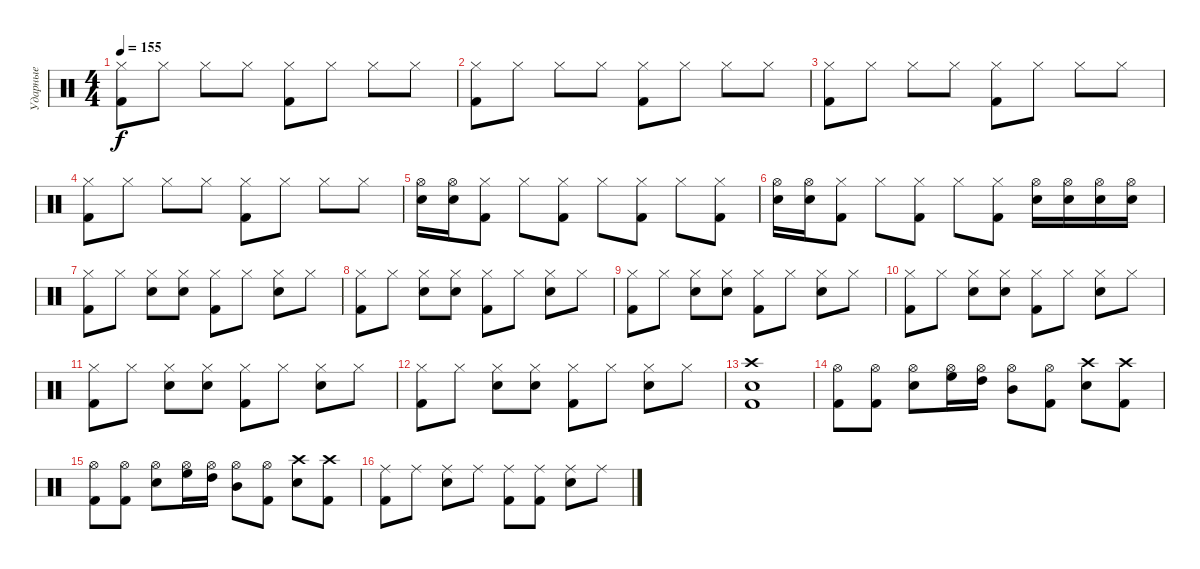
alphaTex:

\track ("Ударные" "Ударные") {solo instrument percussion}
\staff {score}
\articulation defaults
\ts (4 4)
\tempo 155
\clef neutral
\ks c
("Hi-Hat (closed)" "Kick (hit) 2").8{dy f} "Hi-Hat (closed)".8 "Hi-Hat (closed)".8 "Hi-Hat (closed)".8 ("Hi-Hat (closed)" "Kick (hit) 2").8 "Hi-Hat (closed)".8 "Hi-Hat (closed)".8 "Hi-Hat (closed)".8 |
("Hi-Hat (closed)" "Kick (hit) 2").8 "Hi-Hat (closed)".8 "Hi-Hat (closed)".8 "Hi-Hat (closed)".8 ("Hi-Hat (closed)" "Kick (hit) 2").8 "Hi-Hat (closed)".8 "Hi-Hat (closed)".8 "Hi-Hat (closed)".8 |
("Hi-Hat (closed)" "Kick (hit) 2").8 "Hi-Hat (closed)".8 "Hi-Hat (closed)".8 "Hi-Hat (closed)".8 ("Hi-Hat (closed)" "Kick (hit) 2").8 "Hi-Hat (closed)".8 "Hi-Hat (closed)".8 "Hi-Hat (closed)".8 |
("Hi-Hat (closed)" "Kick (hit) 2").8 "Hi-Hat (closed)".8 "Hi-Hat (closed)".8 "Hi-Hat (closed)".8 ("Hi-Hat (closed)" "Kick (hit) 2").8 "Hi-Hat (closed)".8 "Hi-Hat (closed)".8 "Hi-Hat (closed)".8 |
("Snare (hit) 2" "Hi-Hat (open)").16 ("Snare (hit) 2" "Hi-Hat (open)").16 ("Hi-Hat (closed)" "Kick (hit) 2").8 "Hi-Hat (closed)".8 ("Hi-Hat (closed)" "Kick (hit) 2").8 "Hi-Hat (closed)".8 ("Hi-Hat (closed)" "Kick (hit) 2").8 "Hi-Hat (closed)".8 ("Hi-Hat (closed)" "Kick (hit) 2").8 |
("Snare (hit) 2" "Hi-Hat (open)").16 ("Snare (hit) 2" "Hi-Hat (open)").16 ("Hi-Hat (closed)" "Kick (hit) 2").8 "Hi-Hat (closed)".8 ("Hi-Hat (closed)" "Kick (hit) 2").8 "Hi-Hat (closed)".8 ("Hi-Hat (closed)" "Kick (hit) 2").8 ("Electric Snare (hit)" "Hi-Hat (open)").16 ("Electric Snare (hit)" "Hi-Hat (open)").16 ("Electric Snare (hit)" "Hi-Hat (open)").16 ("Electric Snare (hit)" "Hi-Hat (open)").16 |
("Hi-Hat (closed)" "Kick (hit) 2").8 "Hi-Hat (closed)".8 ("Hi-Hat (closed)" "Snare (hit) 2").8 ("Hi-Hat (closed)" "Snare (hit) 2").8 ("Hi-Hat (closed)" "Kick (hit) 2").8 "Hi-Hat (closed)".8 ("Hi-Hat (closed)" "Snare (hit) 2").8 "Hi-Hat (closed)".8 |
("Hi-Hat (closed)" "Kick (hit) 2").8 "Hi-Hat (closed)".8 ("Hi-Hat (closed)" "Snare (hit) 2").8 ("Hi-Hat (closed)" "Snare (hit) 2").8 ("Hi-Hat (closed)" "Kick (hit) 2").8 "Hi-Hat (closed)".8 ("Hi-Hat (closed)" "Snare (hit) 2").8 "Hi-Hat (closed)".8 |
("Hi-Hat (closed)" "Kick (hit) 2").8 "Hi-Hat (closed)".8 ("Hi-Hat (closed)" "Snare (hit) 2").8 ("Hi-Hat (closed)" "Snare (hit) 2").8 ("Hi-Hat (closed)" "Kick (hit) 2").8 "Hi-Hat (closed)".8 ("Hi-Hat (closed)" "Snare (hit) 2").8 "Hi-Hat (closed)".8 |
("Hi-Hat (closed)" "Kick (hit) 2").8 "Hi-Hat (closed)".8 ("Hi-Hat (closed)" "Snare (hit) 2").8 ("Hi-Hat (closed)" "Snare (hit) 2").8 ("Hi-Hat (closed)" "Kick (hit) 2").8 "Hi-Hat (closed)".8 ("Hi-Hat (closed)" "Snare (hit) 2").8 "Hi-Hat (closed)".8 |
("Hi-Hat (closed)" "Kick (hit) 2").8 "Hi-Hat (closed)".8 ("Hi-Hat (closed)" "Snare (hit) 2").8 ("Hi-Hat (closed)" "Snare (hit) 2").8 ("Hi-Hat (closed)" "Kick (hit) 2").8 "Hi-Hat (closed)".8 ("Hi-Hat (closed)" "Snare (hit) 2").8 "Hi-Hat (closed)".8 |
("Hi-Hat (closed)" "Kick (hit) 2").8 "Hi-Hat (closed)".8 ("Hi-Hat (closed)" "Snare (hit) 2").8 ("Hi-Hat (closed)" "Snare (hit) 2").8 ("Hi-Hat (closed)" "Kick (hit) 2").8 "Hi-Hat (closed)".8 ("Hi-Hat (closed)" "Snare (hit) 2").8 "Hi-Hat (closed)".8 |
("Crash high (hit)" "Snare (hit) 2" "Kick (hit) 2").1 |
("Kick (hit) 2" "Hi-Hat (open)").8 ("Kick (hit) 2" "Hi-Hat (open)").8 ("Snare (hit) 2" "Hi-Hat (open)").8 ("High Floor Tom (hit)" "Hi-Hat (open)").16 ("High Tom (hit)" "Hi-Hat (open)").16 ("Mid Tom (hit)" "Hi-Hat (open)").8 ("Kick (hit) 2" "Hi-Hat (open)").8 ("Snare (hit) 2" "Crash high (hit)").8 ("Kick (hit) 2" "Crash high (hit)").8 |
("Kick (hit) 2" "Hi-Hat (open)").8 ("Kick (hit) 2" "Hi-Hat (open)").8 ("Snare (hit) 2" "Hi-Hat (open)").8 ("High Floor Tom (hit)" "Hi-Hat (open)").16 ("High Tom (hit)" "Hi-Hat (open)").16 ("Mid Tom (hit)" "Hi-Hat (open)").8 ("Kick (hit) 2" "Hi-Hat (open)").8 ("Snare (hit) 2" "Crash high (hit)").8 ("Kick (hit) 2" "Crash high (hit)").8 |
("Ride (middle)" "Kick (hit) 2").8 "Ride (middle)".8 ("Ride (middle)" "Snare (hit) 2").8 "Ride (middle)".8 ("Ride (middle)" "Kick (hit) 2").8 ("Ride (middle)" "Kick (hit) 2").8 ("Ride (middle)" "Snare (hit) 2").8 "Ride (middle)".8
